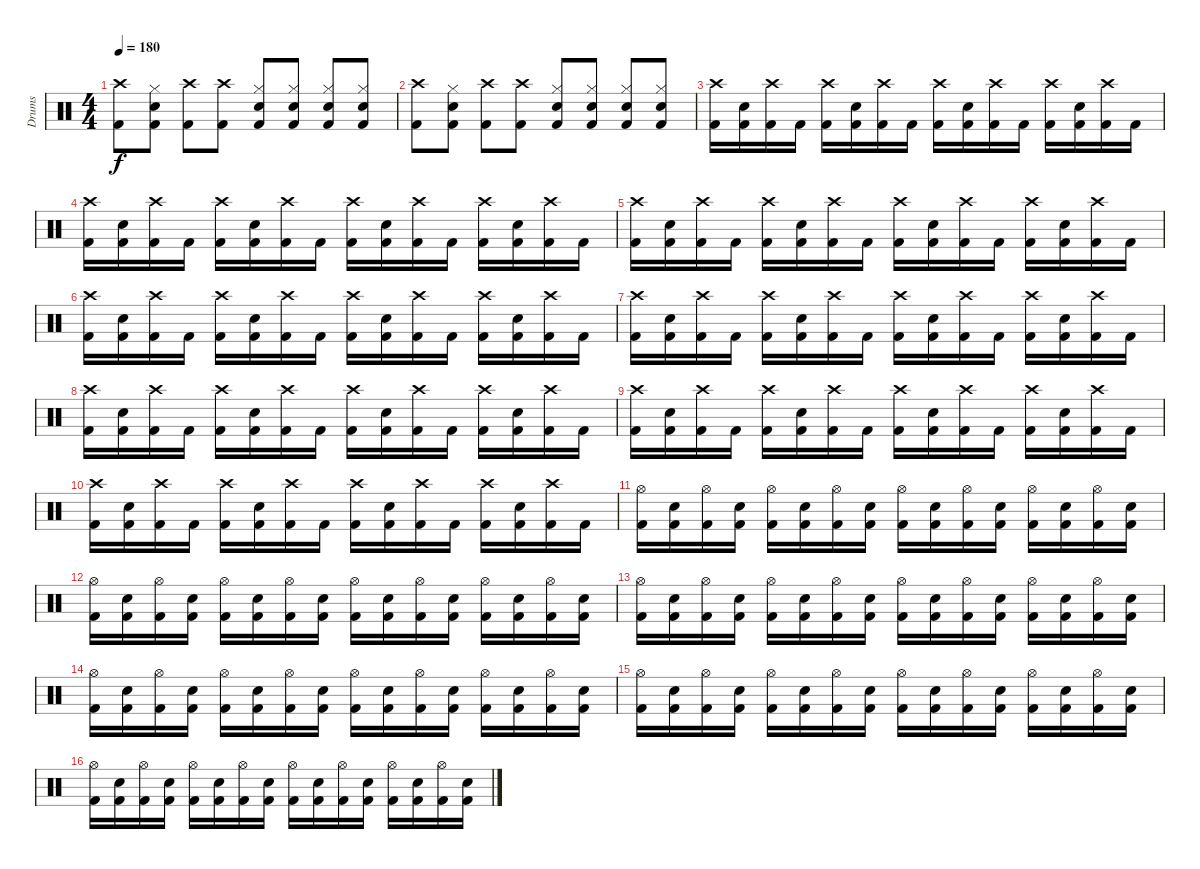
\track ("Drums" "Drums") {instrument percussion}
\staff {score}
\articulation defaults
\ts (4 4)
\tempo 180
\clef neutral
\ks c
("Crash high (hit)" "Kick (hit) 2").8{dy f} ("Hi-Hat (closed)" "Snare (hit) 2" "Kick (hit) 2").8 ("Crash high (hit)" "Kick (hit) 2").8 ("Crash high (hit)" "Kick (hit) 2").8 ("Hi-Hat (closed)" "Snare (hit) 2" "Kick (hit) 2").8 ("Hi-Hat (closed)" "Snare (hit) 2" "Kick (hit) 2").8 ("Hi-Hat (closed)" "Snare (hit) 2" "Kick (hit) 2").8 ("Hi-Hat (closed)" "Snare (hit) 2" "Kick (hit) 2").8 |
("Crash high (hit)" "Kick (hit) 2").8 ("Hi-Hat (closed)" "Snare (hit) 2" "Kick (hit) 2").8 ("Crash high (hit)" "Kick (hit) 2").8 ("Crash high (hit)" "Kick (hit) 2").8 ("Hi-Hat (closed)" "Snare (hit) 2" "Kick (hit) 2").8 ("Hi-Hat (closed)" "Snare (hit) 2" "Kick (hit) 2").8 ("Hi-Hat (closed)" "Snare (hit) 2" "Kick (hit) 2").8 ("Hi-Hat (closed)" "Snare (hit) 2" "Kick (hit) 2").8 |
("Crash high (hit)" "Kick (hit) 2").16 ("Snare (hit) 2" "Kick (hit) 2").16 ("Crash high (hit)" "Kick (hit) 2").16 "Kick (hit) 2".16 ("Crash high (hit)" "Kick (hit) 2").16 ("Snare (hit) 2" "Kick (hit) 2").16 ("Crash high (hit)" "Kick (hit) 2").16 "Kick (hit) 2".16 ("Crash high (hit)" "Kick (hit) 2").16 ("Snare (hit) 2" "Kick (hit) 2").16 ("Crash high (hit)" "Kick (hit) 2").16 "Kick (hit) 2".16 ("Crash high (hit)" "Kick (hit) 2").16 ("Snare (hit) 2" "Kick (hit) 2").16 ("Crash high (hit)" "Kick (hit) 2").16 "Kick (hit) 2".16 |
("Crash high (hit)" "Kick (hit) 2").16 ("Snare (hit) 2" "Kick (hit) 2").16 ("Crash high (hit)" "Kick (hit) 2").16 "Kick (hit) 2".16 ("Crash high (hit)" "Kick (hit) 2").16 ("Snare (hit) 2" "Kick (hit) 2").16 ("Crash high (hit)" "Kick (hit) 2").16 "Kick (hit) 2".16 ("Crash high (hit)" "Kick (hit) 2").16 ("Snare (hit) 2" "Kick (hit) 2").16 ("Crash high (hit)" "Kick (hit) 2").16 "Kick (hit) 2".16 ("Crash high (hit)" "Kick (hit) 2").16 ("Snare (hit) 2" "Kick (hit) 2").16 ("Crash high (hit)" "Kick (hit) 2").16 "Kick (hit) 2".16 |
("Crash high (hit)" "Kick (hit) 2").16 ("Snare (hit) 2" "Kick (hit) 2").16 ("Crash high (hit)" "Kick (hit) 2").16 "Kick (hit) 2".16 ("Crash high (hit)" "Kick (hit) 2").16 ("Snare (hit) 2" "Kick (hit) 2").16 ("Crash high (hit)" "Kick (hit) 2").16 "Kick (hit) 2".16 ("Crash high (hit)" "Kick (hit) 2").16 ("Snare (hit) 2" "Kick (hit) 2").16 ("Crash high (hit)" "Kick (hit) 2").16 "Kick (hit) 2".16 ("Crash high (hit)" "Kick (hit) 2").16 ("Snare (hit) 2" "Kick (hit) 2").16 ("Crash high (hit)" "Kick (hit) 2").16 "Kick (hit) 2".16 |
("Crash high (hit)" "Kick (hit) 2").16 ("Snare (hit) 2" "Kick (hit) 2").16 ("Crash high (hit)" "Kick (hit) 2").16 "Kick (hit) 2".16 ("Crash high (hit)" "Kick (hit) 2").16 ("Snare (hit) 2" "Kick (hit) 2").16 ("Crash high (hit)" "Kick (hit) 2").16 "Kick (hit) 2".16 ("Crash high (hit)" "Kick (hit) 2").16 ("Snare (hit) 2" "Kick (hit) 2").16 ("Crash high (hit)" "Kick (hit) 2").16 "Kick (hit) 2".16 ("Crash high (hit)" "Kick (hit) 2").16 ("Snare (hit) 2" "Kick (hit) 2").16 ("Crash high (hit)" "Kick (hit) 2").16 "Kick (hit) 2".16 |
("Crash high (hit)" "Kick (hit) 2").16 ("Snare (hit) 2" "Kick (hit) 2").16 ("Crash high (hit)" "Kick (hit) 2").16 "Kick (hit) 2".16 ("Crash high (hit)" "Kick (hit) 2").16 ("Snare (hit) 2" "Kick (hit) 2").16 ("Crash high (hit)" "Kick (hit) 2").16 "Kick (hit) 2".16 ("Crash high (hit)" "Kick (hit) 2").16 ("Snare (hit) 2" "Kick (hit) 2").16 ("Crash high (hit)" "Kick (hit) 2").16 "Kick (hit) 2".16 ("Crash high (hit)" "Kick (hit) 2").16 ("Snare (hit) 2" "Kick (hit) 2").16 ("Crash high (hit)" "Kick (hit) 2").16 "Kick (hit) 2".16 |
("Crash high (hit)" "Kick (hit) 2").16 ("Snare (hit) 2" "Kick (hit) 2").16 ("Crash high (hit)" "Kick (hit) 2").16 "Kick (hit) 2".16 ("Crash high (hit)" "Kick (hit) 2").16 ("Snare (hit) 2" "Kick (hit) 2").16 ("Crash high (hit)" "Kick (hit) 2").16 "Kick (hit) 2".16 ("Crash high (hit)" "Kick (hit) 2").16 ("Snare (hit) 2" "Kick (hit) 2").16 ("Crash high (hit)" "Kick (hit) 2").16 "Kick (hit) 2".16 ("Crash high (hit)" "Kick (hit) 2").16 ("Snare (hit) 2" "Kick (hit) 2").16 ("Crash high (hit)" "Kick (hit) 2").16 "Kick (hit) 2".16 |
("Crash high (hit)" "Kick (hit) 2").16 ("Snare (hit) 2" "Kick (hit) 2").16 ("Crash high (hit)" "Kick (hit) 2").16 "Kick (hit) 2".16 ("Crash high (hit)" "Kick (hit) 2").16 ("Snare (hit) 2" "Kick (hit) 2").16 ("Crash high (hit)" "Kick (hit) 2").16 "Kick (hit) 2".16 ("Crash high (hit)" "Kick (hit) 2").16 ("Snare (hit) 2" "Kick (hit) 2").16 ("Crash high (hit)" "Kick (hit) 2").16 "Kick (hit) 2".16 ("Crash high (hit)" "Kick (hit) 2").16 ("Snare (hit) 2" "Kick (hit) 2").16 ("Crash high (hit)" "Kick (hit) 2").16 "Kick (hit) 2".16 |
("Crash high (hit)" "Kick (hit) 2").16 ("Snare (hit) 2" "Kick (hit) 2").16 ("Crash high (hit)" "Kick (hit) 2").16 "Kick (hit) 2".16 ("Crash high (hit)" "Kick (hit) 2").16 ("Snare (hit) 2" "Kick (hit) 2").16 ("Crash high (hit)" "Kick (hit) 2").16 "Kick (hit) 2".16 ("Crash high (hit)" "Kick (hit) 2").16 ("Snare (hit) 2" "Kick (hit) 2").16 ("Crash high (hit)" "Kick (hit) 2").16 "Kick (hit) 2".16 ("Crash high (hit)" "Kick (hit) 2").16 ("Snare (hit) 2" "Kick (hit) 2").16 ("Crash high (hit)" "Kick (hit) 2").16 "Kick (hit) 2".16 |
("Hi-Hat (open)" "Kick (hit) 2").16 ("Snare (hit) 2" "Kick (hit) 2").16 ("Hi-Hat (open)" "Kick (hit) 2").16 ("Snare (hit) 2" "Kick (hit) 2").16 ("Hi-Hat (open)" "Kick (hit) 2").16 ("Snare (hit) 2" "Kick (hit) 2").16 ("Hi-Hat (open)" "Kick (hit) 2").16 ("Snare (hit) 2" "Kick (hit) 2").16 ("Hi-Hat (open)" "Kick (hit) 2").16 ("Snare (hit) 2" "Kick (hit) 2").16 ("Hi-Hat (open)" "Kick (hit) 2").16 ("Snare (hit) 2" "Kick (hit) 2").16 ("Hi-Hat (open)" "Kick (hit) 2").16 ("Snare (hit) 2" "Kick (hit) 2").16 ("Hi-Hat (open)" "Kick (hit) 2").16 ("Snare (hit) 2" "Kick (hit) 2").16 |
("Hi-Hat (open)" "Kick (hit) 2").16 ("Snare (hit) 2" "Kick (hit) 2").16 ("Hi-Hat (open)" "Kick (hit) 2").16 ("Snare (hit) 2" "Kick (hit) 2").16 ("Hi-Hat (open)" "Kick (hit) 2").16 ("Snare (hit) 2" "Kick (hit) 2").16 ("Hi-Hat (open)" "Kick (hit) 2").16 ("Snare (hit) 2" "Kick (hit) 2").16 ("Hi-Hat (open)" "Kick (hit) 2").16 ("Snare (hit) 2" "Kick (hit) 2").16 ("Hi-Hat (open)" "Kick (hit) 2").16 ("Snare (hit) 2" "Kick (hit) 2").16 ("Hi-Hat (open)" "Kick (hit) 2").16 ("Snare (hit) 2" "Kick (hit) 2").16 ("Hi-Hat (open)" "Kick (hit) 2").16 ("Snare (hit) 2" "Kick (hit) 2").16 |
("Hi-Hat (open)" "Kick (hit) 2").16 ("Snare (hit) 2" "Kick (hit) 2").16 ("Hi-Hat (open)" "Kick (hit) 2").16 ("Snare (hit) 2" "Kick (hit) 2").16 ("Hi-Hat (open)" "Kick (hit) 2").16 ("Snare (hit) 2" "Kick (hit) 2").16 ("Hi-Hat (open)" "Kick (hit) 2").16 ("Snare (hit) 2" "Kick (hit) 2").16 ("Hi-Hat (open)" "Kick (hit) 2").16 ("Snare (hit) 2" "Kick (hit) 2").16 ("Hi-Hat (open)" "Kick (hit) 2").16 ("Snare (hit) 2" "Kick (hit) 2").16 ("Hi-Hat (open)" "Kick (hit) 2").16 ("Snare (hit) 2" "Kick (hit) 2").16 ("Hi-Hat (open)" "Kick (hit) 2").16 ("Snare (hit) 2" "Kick (hit) 2").16 |
("Hi-Hat (open)" "Kick (hit) 2").16 ("Snare (hit) 2" "Kick (hit) 2").16 ("Hi-Hat (open)" "Kick (hit) 2").16 ("Snare (hit) 2" "Kick (hit) 2").16 ("Hi-Hat (open)" "Kick (hit) 2").16 ("Snare (hit) 2" "Kick (hit) 2").16 ("Hi-Hat (open)" "Kick (hit) 2").16 ("Snare (hit) 2" "Kick (hit) 2").16 ("Hi-Hat (open)" "Kick (hit) 2").16 ("Snare (hit) 2" "Kick (hit) 2").16 ("Hi-Hat (open)" "Kick (hit) 2").16 ("Snare (hit) 2" "Kick (hit) 2").16 ("Hi-Hat (open)" "Kick (hit) 2").16 ("Snare (hit) 2" "Kick (hit) 2").16 ("Hi-Hat (open)" "Kick (hit) 2").16 ("Snare (hit) 2" "Kick (hit) 2").16 |
("Hi-Hat (open)" "Kick (hit) 2").16 ("Snare (hit) 2" "Kick (hit) 2").16 ("Hi-Hat (open)" "Kick (hit) 2").16 ("Snare (hit) 2" "Kick (hit) 2").16 ("Hi-Hat (open)" "Kick (hit) 2").16 ("Snare (hit) 2" "Kick (hit) 2").16 ("Hi-Hat (open)" "Kick (hit) 2").16 ("Snare (hit) 2" "Kick (hit) 2").16 ("Hi-Hat (open)" "Kick (hit) 2").16 ("Snare (hit) 2" "Kick (hit) 2").16 ("Hi-Hat (open)" "Kick (hit) 2").16 ("Snare (hit) 2" "Kick (hit) 2").16 ("Hi-Hat (open)" "Kick (hit) 2").16 ("Snare (hit) 2" "Kick (hit) 2").16 ("Hi-Hat (open)" "Kick (hit) 2").16 ("Snare (hit) 2" "Kick (hit) 2").16 |
("Hi-Hat (open)" "Kick (hit) 2").16 ("Snare (hit) 2" "Kick (hit) 2").16 ("Hi-Hat (open)" "Kick (hit) 2").16 ("Snare (hit) 2" "Kick (hit) 2").16 ("Hi-Hat (open)" "Kick (hit) 2").16 ("Snare (hit) 2" "Kick (hit) 2").16 ("Hi-Hat (open)" "Kick (hit) 2").16 ("Snare (hit) 2" "Kick (hit) 2").16 ("Hi-Hat (open)" "Kick (hit) 2").16 ("Snare (hit) 2" "Kick (hit) 2").16 ("Hi-Hat (open)" "Kick (hit) 2").16 ("Snare (hit) 2" "Kick (hit) 2").16 ("Hi-Hat (open)" "Kick (hit) 2").16 ("Snare (hit) 2" "Kick (hit) 2").16 ("Hi-Hat (open)" "Kick (hit) 2").16 ("Snare (hit) 2" "Kick (hit) 2").16
